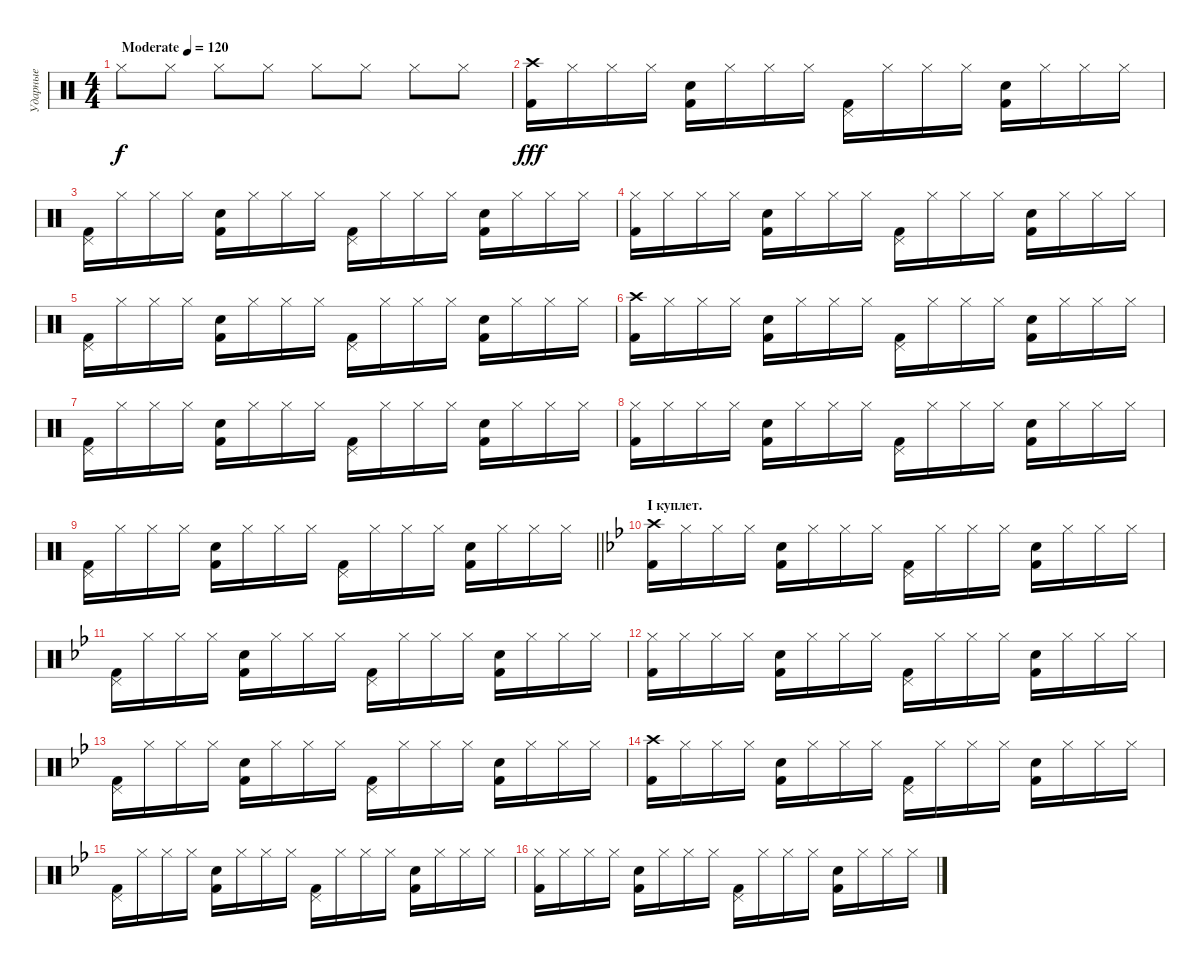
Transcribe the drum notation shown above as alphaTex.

\track ("Ударные" "Ударные") {instrument percussion}
\staff {score}
\articulation defaults
\ts (4 4)
\tempo (120 "Moderate")
\clef neutral
\ks c "Hi-Hat (closed)".8{dy f} "Hi-Hat (closed)".8 "Hi-Hat (closed)".8 "Hi-Hat (closed)".8 "Hi-Hat (closed)".8 "Hi-Hat (closed)".8 "Hi-Hat (closed)".8 "Hi-Hat (closed)".8
|
("Crash high (hit)" "Kick (hit) 2").16{dy fff} "Hi-Hat (closed)".16 "Hi-Hat (closed)".16 "Hi-Hat (closed)".16 ("Snare (hit) 2" "Kick (hit) 2").16 "Hi-Hat (closed)".16 "Hi-Hat (closed)".16 "Hi-Hat (closed)".16 ("Pedal Hi-Hat (hit)" "Kick (hit) 2").16 "Hi-Hat (closed)".16 "Hi-Hat (closed)".16 "Hi-Hat (closed)".16 ("Snare (hit) 2" "Kick (hit) 2").16 "Hi-Hat (closed)".16 "Hi-Hat (closed)".16 "Hi-Hat (closed)".16 |
("Pedal Hi-Hat (hit)" "Kick (hit) 2").16 "Hi-Hat (closed)".16 "Hi-Hat (closed)".16 "Hi-Hat (closed)".16 ("Snare (hit) 2" "Kick (hit) 2").16 "Hi-Hat (closed)".16 "Hi-Hat (closed)".16 "Hi-Hat (closed)".16 ("Pedal Hi-Hat (hit)" "Kick (hit) 2").16 "Hi-Hat (closed)".16 "Hi-Hat (closed)".16 "Hi-Hat (closed)".16 ("Snare (hit) 2" "Kick (hit) 2").16 "Hi-Hat (closed)".16 "Hi-Hat (closed)".16 "Hi-Hat (closed)".16 |
("Hi-Hat (closed)" "Kick (hit) 2").16 "Hi-Hat (closed)".16 "Hi-Hat (closed)".16 "Hi-Hat (closed)".16 ("Snare (hit) 2" "Kick (hit) 2").16 "Hi-Hat (closed)".16 "Hi-Hat (closed)".16 "Hi-Hat (closed)".16 ("Pedal Hi-Hat (hit)" "Kick (hit) 2").16 "Hi-Hat (closed)".16 "Hi-Hat (closed)".16 "Hi-Hat (closed)".16 ("Snare (hit) 2" "Kick (hit) 2").16 "Hi-Hat (closed)".16 "Hi-Hat (closed)".16 "Hi-Hat (closed)".16 |
("Pedal Hi-Hat (hit)" "Kick (hit) 2").16 "Hi-Hat (closed)".16 "Hi-Hat (closed)".16 "Hi-Hat (closed)".16 ("Snare (hit) 2" "Kick (hit) 2").16 "Hi-Hat (closed)".16 "Hi-Hat (closed)".16 "Hi-Hat (closed)".16 ("Pedal Hi-Hat (hit)" "Kick (hit) 2").16 "Hi-Hat (closed)".16 "Hi-Hat (closed)".16 "Hi-Hat (closed)".16 ("Snare (hit) 2" "Kick (hit) 2").16 "Hi-Hat (closed)".16 "Hi-Hat (closed)".16 "Hi-Hat (closed)".16 |
("Crash high (hit)" "Kick (hit) 2").16 "Hi-Hat (closed)".16 "Hi-Hat (closed)".16 "Hi-Hat (closed)".16 ("Snare (hit) 2" "Kick (hit) 2").16 "Hi-Hat (closed)".16 "Hi-Hat (closed)".16 "Hi-Hat (closed)".16 ("Pedal Hi-Hat (hit)" "Kick (hit) 2").16 "Hi-Hat (closed)".16 "Hi-Hat (closed)".16 "Hi-Hat (closed)".16 ("Snare (hit) 2" "Kick (hit) 2").16 "Hi-Hat (closed)".16 "Hi-Hat (closed)".16 "Hi-Hat (closed)".16 |
("Pedal Hi-Hat (hit)" "Kick (hit) 2").16 "Hi-Hat (closed)".16 "Hi-Hat (closed)".16 "Hi-Hat (closed)".16 ("Snare (hit) 2" "Kick (hit) 2").16 "Hi-Hat (closed)".16 "Hi-Hat (closed)".16 "Hi-Hat (closed)".16 ("Pedal Hi-Hat (hit)" "Kick (hit) 2").16 "Hi-Hat (closed)".16 "Hi-Hat (closed)".16 "Hi-Hat (closed)".16 ("Snare (hit) 2" "Kick (hit) 2").16 "Hi-Hat (closed)".16 "Hi-Hat (closed)".16 "Hi-Hat (closed)".16 |
("Hi-Hat (closed)" "Kick (hit) 2").16 "Hi-Hat (closed)".16 "Hi-Hat (closed)".16 "Hi-Hat (closed)".16 ("Snare (hit) 2" "Kick (hit) 2").16 "Hi-Hat (closed)".16 "Hi-Hat (closed)".16 "Hi-Hat (closed)".16 ("Pedal Hi-Hat (hit)" "Kick (hit) 2").16 "Hi-Hat (closed)".16 "Hi-Hat (closed)".16 "Hi-Hat (closed)".16 ("Snare (hit) 2" "Kick (hit) 2").16 "Hi-Hat (closed)".16 "Hi-Hat (closed)".16 "Hi-Hat (closed)".16 |
\barLineRight lightlight
("Pedal Hi-Hat (hit)" "Kick (hit) 2").16 "Hi-Hat (closed)".16 "Hi-Hat (closed)".16 "Hi-Hat (closed)".16 ("Snare (hit) 2" "Kick (hit) 2").16 "Hi-Hat (closed)".16 "Hi-Hat (closed)".16 "Hi-Hat (closed)".16 ("Pedal Hi-Hat (hit)" "Kick (hit) 2").16 "Hi-Hat (closed)".16 "Hi-Hat (closed)".16 "Hi-Hat (closed)".16 ("Snare (hit) 2" "Kick (hit) 2").16 "Hi-Hat (closed)".16 "Hi-Hat (closed)".16 "Hi-Hat (closed)".16 |
\section ("" "I куплет.")
\ks gminor
("Crash high (hit)" "Kick (hit) 2").16 "Hi-Hat (closed)".16 "Hi-Hat (closed)".16 "Hi-Hat (closed)".16 ("Snare (hit) 2" "Kick (hit) 2").16 "Hi-Hat (closed)".16 "Hi-Hat (closed)".16 "Hi-Hat (closed)".16 ("Pedal Hi-Hat (hit)" "Kick (hit) 2").16 "Hi-Hat (closed)".16 "Hi-Hat (closed)".16 "Hi-Hat (closed)".16 ("Snare (hit) 2" "Kick (hit) 2").16 "Hi-Hat (closed)".16 "Hi-Hat (closed)".16 "Hi-Hat (closed)".16 |
("Pedal Hi-Hat (hit)" "Kick (hit) 2").16 "Hi-Hat (closed)".16 "Hi-Hat (closed)".16 "Hi-Hat (closed)".16 ("Snare (hit) 2" "Kick (hit) 2").16 "Hi-Hat (closed)".16 "Hi-Hat (closed)".16 "Hi-Hat (closed)".16 ("Pedal Hi-Hat (hit)" "Kick (hit) 2").16 "Hi-Hat (closed)".16 "Hi-Hat (closed)".16 "Hi-Hat (closed)".16 ("Snare (hit) 2" "Kick (hit) 2").16 "Hi-Hat (closed)".16 "Hi-Hat (closed)".16 "Hi-Hat (closed)".16 |
("Hi-Hat (closed)" "Kick (hit) 2").16 "Hi-Hat (closed)".16 "Hi-Hat (closed)".16 "Hi-Hat (closed)".16 ("Snare (hit) 2" "Kick (hit) 2").16 "Hi-Hat (closed)".16 "Hi-Hat (closed)".16 "Hi-Hat (closed)".16 ("Pedal Hi-Hat (hit)" "Kick (hit) 2").16 "Hi-Hat (closed)".16 "Hi-Hat (closed)".16 "Hi-Hat (closed)".16 ("Snare (hit) 2" "Kick (hit) 2").16 "Hi-Hat (closed)".16 "Hi-Hat (closed)".16 "Hi-Hat (closed)".16 |
("Pedal Hi-Hat (hit)" "Kick (hit) 2").16 "Hi-Hat (closed)".16 "Hi-Hat (closed)".16 "Hi-Hat (closed)".16 ("Snare (hit) 2" "Kick (hit) 2").16 "Hi-Hat (closed)".16 "Hi-Hat (closed)".16 "Hi-Hat (closed)".16 ("Pedal Hi-Hat (hit)" "Kick (hit) 2").16 "Hi-Hat (closed)".16 "Hi-Hat (closed)".16 "Hi-Hat (closed)".16 ("Snare (hit) 2" "Kick (hit) 2").16 "Hi-Hat (closed)".16 "Hi-Hat (closed)".16 "Hi-Hat (closed)".16 |
("Crash high (hit)" "Kick (hit) 2").16 "Hi-Hat (closed)".16 "Hi-Hat (closed)".16 "Hi-Hat (closed)".16 ("Snare (hit) 2" "Kick (hit) 2").16 "Hi-Hat (closed)".16 "Hi-Hat (closed)".16 "Hi-Hat (closed)".16 ("Pedal Hi-Hat (hit)" "Kick (hit) 2").16 "Hi-Hat (closed)".16 "Hi-Hat (closed)".16 "Hi-Hat (closed)".16 ("Snare (hit) 2" "Kick (hit) 2").16 "Hi-Hat (closed)".16 "Hi-Hat (closed)".16 "Hi-Hat (closed)".16 |
("Pedal Hi-Hat (hit)" "Kick (hit) 2").16 "Hi-Hat (closed)".16 "Hi-Hat (closed)".16 "Hi-Hat (closed)".16 ("Snare (hit) 2" "Kick (hit) 2").16 "Hi-Hat (closed)".16 "Hi-Hat (closed)".16 "Hi-Hat (closed)".16 ("Pedal Hi-Hat (hit)" "Kick (hit) 2").16 "Hi-Hat (closed)".16 "Hi-Hat (closed)".16 "Hi-Hat (closed)".16 ("Snare (hit) 2" "Kick (hit) 2").16 "Hi-Hat (closed)".16 "Hi-Hat (closed)".16 "Hi-Hat (closed)".16 |
("Hi-Hat (closed)" "Kick (hit) 2").16 "Hi-Hat (closed)".16 "Hi-Hat (closed)".16 "Hi-Hat (closed)".16 ("Snare (hit) 2" "Kick (hit) 2").16 "Hi-Hat (closed)".16 "Hi-Hat (closed)".16 "Hi-Hat (closed)".16 ("Pedal Hi-Hat (hit)" "Kick (hit) 2").16 "Hi-Hat (closed)".16 "Hi-Hat (closed)".16 "Hi-Hat (closed)".16 ("Snare (hit) 2" "Kick (hit) 2").16 "Hi-Hat (closed)".16 "Hi-Hat (closed)".16 "Hi-Hat (closed)".16
